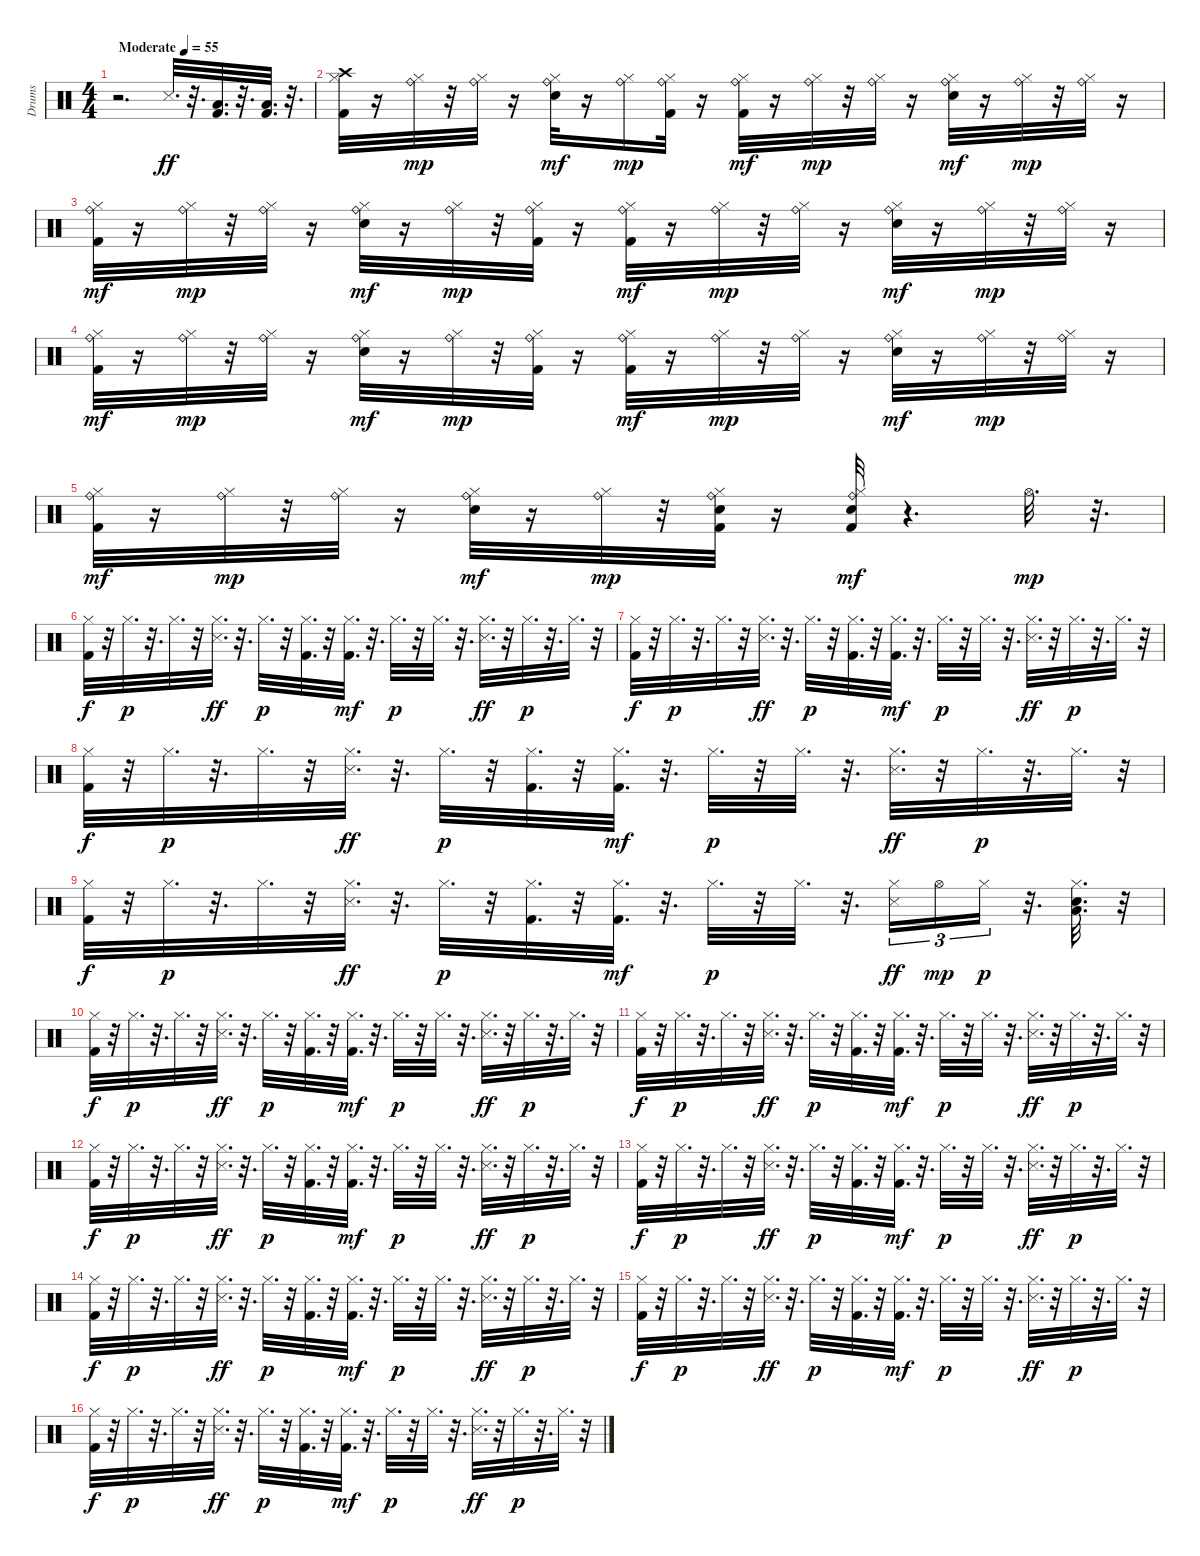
\track ("Drums" "Drums") {instrument percussion}
\staff {score}
\articulation defaults
\ts (4 4)
\tempo (55 "Moderate")
\clef neutral
\ks c
r.2{d dy ff} "Snare (side stick) 3".32{d} r.32{d} ("Kick (hit) 2" "Low Floor Tom (hit)").32{d} r.32{d} ("Kick (hit) 2" "Low Floor Tom (hit)").32{d} r.32{d} |
("Kick (hit) 2" "Hi-Hat (closed)" "Crash high (hit)").32 r.16 ("Ride (bell)" "Hi-Hat (closed)").32{dy mp} r.32 ("Ride (bell)" "Hi-Hat (closed)").32 r.16 ("Ride (bell)" "Snare (hit) 2" "Hi-Hat (closed)").32{dy mf} r.16 ("Ride (bell)" "Hi-Hat (closed)").16{dy mp} ("Ride (bell)" "Kick (hit) 2" "Hi-Hat (closed)").32 r.16 ("Ride (bell)" "Kick (hit) 2" "Hi-Hat (closed)").32{dy mf} r.16 ("Ride (bell)" "Hi-Hat (closed)").32{dy mp} r.32 ("Ride (bell)" "Hi-Hat (closed)").32 r.16 ("Ride (bell)" "Snare (hit) 2" "Hi-Hat (closed)").32{dy mf} r.16 ("Ride (bell)" "Hi-Hat (closed)").32{dy mp} r.32 ("Ride (bell)" "Hi-Hat (closed)").32 r.16 |
("Ride (bell)" "Kick (hit) 2" "Hi-Hat (closed)").32{dy mf} r.16 ("Ride (bell)" "Hi-Hat (closed)").32{dy mp} r.32 ("Ride (bell)" "Hi-Hat (closed)").32 r.16 ("Ride (bell)" "Snare (hit) 2" "Hi-Hat (closed)").32{dy mf} r.16 ("Ride (bell)" "Hi-Hat (closed)").32{dy mp} r.32 ("Ride (bell)" "Kick (hit) 2" "Hi-Hat (closed)").32 r.16 ("Ride (bell)" "Kick (hit) 2" "Hi-Hat (closed)").32{dy mf} r.16 ("Ride (bell)" "Hi-Hat (closed)").32{dy mp} r.32 ("Ride (bell)" "Hi-Hat (closed)").32 r.16 ("Ride (bell)" "Snare (hit) 2" "Hi-Hat (closed)").32{dy mf} r.16 ("Ride (bell)" "Hi-Hat (closed)").32{dy mp} r.32 ("Ride (bell)" "Hi-Hat (closed)").32 r.16 |
("Ride (bell)" "Kick (hit) 2" "Hi-Hat (closed)").32{dy mf} r.16 ("Ride (bell)" "Hi-Hat (closed)").32{dy mp} r.32 ("Ride (bell)" "Hi-Hat (closed)").32 r.16 ("Ride (bell)" "Snare (hit) 2" "Hi-Hat (closed)").32{dy mf} r.16 ("Ride (bell)" "Hi-Hat (closed)").32{dy mp} r.32 ("Ride (bell)" "Kick (hit) 2" "Hi-Hat (closed)").32 r.16 ("Ride (bell)" "Kick (hit) 2" "Hi-Hat (closed)").32{dy mf} r.16 ("Ride (bell)" "Hi-Hat (closed)").32{dy mp} r.32 ("Ride (bell)" "Hi-Hat (closed)").32 r.16 ("Ride (bell)" "Snare (hit) 2" "Hi-Hat (closed)").32{dy mf} r.16 ("Ride (bell)" "Hi-Hat (closed)").32{dy mp} r.32 ("Ride (bell)" "Hi-Hat (closed)").32 r.16 |
("Ride (bell)" "Kick (hit) 2" "Hi-Hat (closed)").32{dy mf} r.16 ("Ride (bell)" "Hi-Hat (closed)").32{dy mp} r.32 ("Ride (bell)" "Hi-Hat (closed)").32 r.16 ("Ride (bell)" "Snare (hit) 2" "Hi-Hat (closed)").32{dy mf} r.16 ("Ride (bell)" "Hi-Hat (closed)").32{dy mp} r.32 ("Ride (bell)" "Kick (hit) 2" "Snare (hit) 2" "Hi-Hat (closed)").32 r.16 ("Ride (bell)" "Kick (hit) 2" "Snare (hit) 2" "Hi-Hat (closed)").32{dy mf} r.4{d} "Hi-Hat (open)".32{d dy mp} r.32{d} |
("Kick (hit) 2" "Hi-Hat (closed)").32{dy f} r.32 "Hi-Hat (closed)".32{d dy p} r.32{d} "Hi-Hat (closed)".32{d} r.32 ("Hi-Hat (closed)" "Snare (side stick) 3").32{d dy ff} r.32{d} "Hi-Hat (closed)".32{d dy p} r.32 ("Kick (hit) 2" "Hi-Hat (closed)").32{d} r.32 ("Kick (hit) 2" "Hi-Hat (closed)").32{d dy mf} r.32{d} "Hi-Hat (closed)".32{d dy p} r.32 "Hi-Hat (closed)".32{d} r.32{d} ("Hi-Hat (closed)" "Snare (side stick) 3").32{d dy ff} r.32 "Hi-Hat (closed)".32{d dy p} r.32{d} "Hi-Hat (closed)".32{d} r.32 |
("Kick (hit) 2" "Hi-Hat (closed)").32{dy f} r.32 "Hi-Hat (closed)".32{d dy p} r.32{d} "Hi-Hat (closed)".32{d} r.32 ("Hi-Hat (closed)" "Snare (side stick) 3").32{d dy ff} r.32{d} "Hi-Hat (closed)".32{d dy p} r.32 ("Kick (hit) 2" "Hi-Hat (closed)").32{d} r.32 ("Kick (hit) 2" "Hi-Hat (closed)").32{d dy mf} r.32{d} "Hi-Hat (closed)".32{d dy p} r.32 "Hi-Hat (closed)".32{d} r.32{d} ("Hi-Hat (closed)" "Snare (side stick) 3").32{d dy ff} r.32 "Hi-Hat (closed)".32{d dy p} r.32{d} "Hi-Hat (closed)".32{d} r.32 |
("Kick (hit) 2" "Hi-Hat (closed)").32{dy f} r.32 "Hi-Hat (closed)".32{d dy p} r.32{d} "Hi-Hat (closed)".32{d} r.32 ("Hi-Hat (closed)" "Snare (side stick) 3").32{d dy ff} r.32{d} "Hi-Hat (closed)".32{d dy p} r.32 ("Kick (hit) 2" "Hi-Hat (closed)").32{d} r.32 ("Kick (hit) 2" "Hi-Hat (closed)").32{d dy mf} r.32{d} "Hi-Hat (closed)".32{d dy p} r.32 "Hi-Hat (closed)".32{d} r.32{d} ("Hi-Hat (closed)" "Snare (side stick) 3").32{d dy ff} r.32 "Hi-Hat (closed)".32{d dy p} r.32{d} "Hi-Hat (closed)".32{d} r.32 |
("Kick (hit) 2" "Hi-Hat (closed)").32{dy f} r.32 "Hi-Hat (closed)".32{d dy p} r.32{d} "Hi-Hat (closed)".32{d} r.32 ("Hi-Hat (closed)" "Snare (side stick) 3").32{d dy ff} r.32{d} "Hi-Hat (closed)".32{d dy p} r.32 ("Kick (hit) 2" "Hi-Hat (closed)").32{d} r.32 ("Kick (hit) 2" "Hi-Hat (closed)").32{d dy mf} r.32{d} "Hi-Hat (closed)".32{d dy p} r.32 "Hi-Hat (closed)".32{d} r.32{d} ("Hi-Hat (closed)" "Snare (side stick) 3").16{tu (3 2) dy ff} "Hi-Hat (open)".16{tu (3 2) dy mp} "Hi-Hat (closed)".16{tu (3 2) dy p} r.32{d} ("Snare (hit) 2" "Hi-Hat (closed)" "Low Floor Tom (hit)").32{d} r.32 |
("Kick (hit) 2" "Hi-Hat (closed)").32{dy f} r.32 "Hi-Hat (closed)".32{d dy p} r.32{d} "Hi-Hat (closed)".32{d} r.32 ("Hi-Hat (closed)" "Snare (side stick) 3").32{d dy ff} r.32{d} "Hi-Hat (closed)".32{d dy p} r.32 ("Kick (hit) 2" "Hi-Hat (closed)").32{d} r.32 ("Kick (hit) 2" "Hi-Hat (closed)").32{d dy mf} r.32{d} "Hi-Hat (closed)".32{d dy p} r.32 "Hi-Hat (closed)".32{d} r.32{d} ("Hi-Hat (closed)" "Snare (side stick) 3").32{d dy ff} r.32 "Hi-Hat (closed)".32{d dy p} r.32{d} "Hi-Hat (closed)".32{d} r.32 |
("Kick (hit) 2" "Hi-Hat (closed)").32{dy f} r.32 "Hi-Hat (closed)".32{d dy p} r.32{d} "Hi-Hat (closed)".32{d} r.32 ("Hi-Hat (closed)" "Snare (side stick) 3").32{d dy ff} r.32{d} "Hi-Hat (closed)".32{d dy p} r.32 ("Kick (hit) 2" "Hi-Hat (closed)").32{d} r.32 ("Kick (hit) 2" "Hi-Hat (closed)").32{d dy mf} r.32{d} "Hi-Hat (closed)".32{d dy p} r.32 "Hi-Hat (closed)".32{d} r.32{d} ("Hi-Hat (closed)" "Snare (side stick) 3").32{d dy ff} r.32 "Hi-Hat (closed)".32{d dy p} r.32{d} "Hi-Hat (closed)".32{d} r.32 |
("Kick (hit) 2" "Hi-Hat (closed)").32{dy f} r.32 "Hi-Hat (closed)".32{d dy p} r.32{d} "Hi-Hat (closed)".32{d} r.32 ("Hi-Hat (closed)" "Snare (side stick) 3").32{d dy ff} r.32{d} "Hi-Hat (closed)".32{d dy p} r.32 ("Kick (hit) 2" "Hi-Hat (closed)").32{d} r.32 ("Kick (hit) 2" "Hi-Hat (closed)").32{d dy mf} r.32{d} "Hi-Hat (closed)".32{d dy p} r.32 "Hi-Hat (closed)".32{d} r.32{d} ("Hi-Hat (closed)" "Snare (side stick) 3").32{d dy ff} r.32 "Hi-Hat (closed)".32{d dy p} r.32{d} "Hi-Hat (closed)".32{d} r.32 |
("Kick (hit) 2" "Hi-Hat (closed)").32{dy f} r.32 "Hi-Hat (closed)".32{d dy p} r.32{d} "Hi-Hat (closed)".32{d} r.32 ("Hi-Hat (closed)" "Snare (side stick) 3").32{d dy ff} r.32{d} "Hi-Hat (closed)".32{d dy p} r.32 ("Kick (hit) 2" "Hi-Hat (closed)").32{d} r.32 ("Kick (hit) 2" "Hi-Hat (closed)").32{d dy mf} r.32{d} "Hi-Hat (closed)".32{d dy p} r.32 "Hi-Hat (closed)".32{d} r.32{d} ("Hi-Hat (closed)" "Snare (side stick) 3").32{d dy ff} r.32 "Hi-Hat (closed)".32{d dy p} r.32{d} "Hi-Hat (closed)".32{d} r.32 |
("Kick (hit) 2" "Hi-Hat (closed)").32{dy f} r.32 "Hi-Hat (closed)".32{d dy p} r.32{d} "Hi-Hat (closed)".32{d} r.32 ("Hi-Hat (closed)" "Snare (side stick) 3").32{d dy ff} r.32{d} "Hi-Hat (closed)".32{d dy p} r.32 ("Kick (hit) 2" "Hi-Hat (closed)").32{d} r.32 ("Kick (hit) 2" "Hi-Hat (closed)").32{d dy mf} r.32{d} "Hi-Hat (closed)".32{d dy p} r.32 "Hi-Hat (closed)".32{d} r.32{d} ("Hi-Hat (closed)" "Snare (side stick) 3").32{d dy ff} r.32 "Hi-Hat (closed)".32{d dy p} r.32{d} "Hi-Hat (closed)".32{d} r.32 |
("Kick (hit) 2" "Hi-Hat (closed)").32{dy f} r.32 "Hi-Hat (closed)".32{d dy p} r.32{d} "Hi-Hat (closed)".32{d} r.32 ("Hi-Hat (closed)" "Snare (side stick) 3").32{d dy ff} r.32{d} "Hi-Hat (closed)".32{d dy p} r.32 ("Kick (hit) 2" "Hi-Hat (closed)").32{d} r.32 ("Kick (hit) 2" "Hi-Hat (closed)").32{d dy mf} r.32{d} "Hi-Hat (closed)".32{d dy p} r.32 "Hi-Hat (closed)".32{d} r.32{d} ("Hi-Hat (closed)" "Snare (side stick) 3").32{d dy ff} r.32 "Hi-Hat (closed)".32{d dy p} r.32{d} "Hi-Hat (closed)".32{d} r.32 |
("Kick (hit) 2" "Hi-Hat (closed)").32{dy f} r.32 "Hi-Hat (closed)".32{d dy p} r.32{d} "Hi-Hat (closed)".32{d} r.32 ("Hi-Hat (closed)" "Snare (side stick) 3").32{d dy ff} r.32{d} "Hi-Hat (closed)".32{d dy p} r.32 ("Kick (hit) 2" "Hi-Hat (closed)").32{d} r.32 ("Kick (hit) 2" "Hi-Hat (closed)").32{d dy mf} r.32{d} "Hi-Hat (closed)".32{d dy p} r.32 "Hi-Hat (closed)".32{d} r.32{d} ("Hi-Hat (closed)" "Snare (side stick) 3").32{d dy ff} r.32 "Hi-Hat (closed)".32{d dy p} r.32{d} "Hi-Hat (closed)".32{d} r.32
